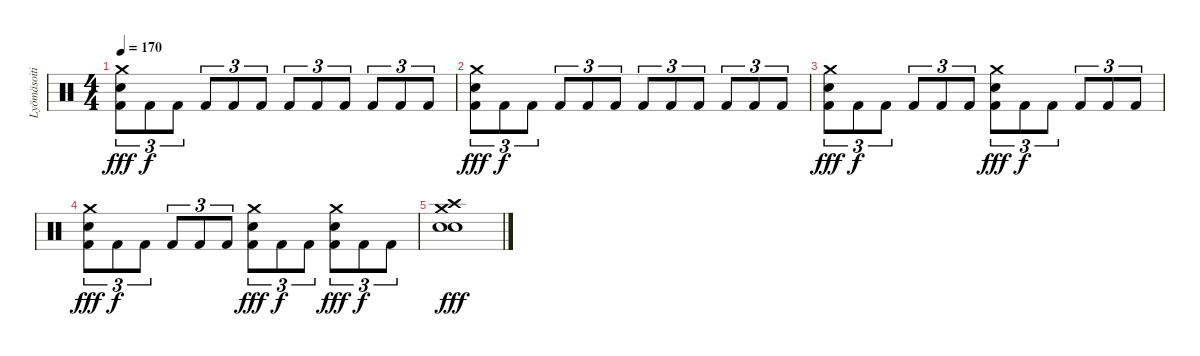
\track ("Lyömäsoitin" "Lyömäsoiti") {instrument percussion}
\staff {score}
\articulation defaults
\ts (4 4)
\tempo 170
\clef neutral
\ks c
("Crash medium (hit)" "Snare (hit) 2" "Kick (hit) 2").8{tu (3 2) dy fff} "Kick (hit) 2".8{tu (3 2) dy f} "Kick (hit) 2".8{tu (3 2)} "Kick (hit) 2".8{tu (3 2)} "Kick (hit) 2".8{tu (3 2)} "Kick (hit) 2".8{tu (3 2)} "Kick (hit) 2".8{tu (3 2)} "Kick (hit) 2".8{tu (3 2)} "Kick (hit) 2".8{tu (3 2)} "Kick (hit) 2".8{tu (3 2)} "Kick (hit) 2".8{tu (3 2)} "Kick (hit) 2".8{tu (3 2)} |
("Crash medium (hit)" "Snare (hit) 2" "Kick (hit) 2").8{tu (3 2) dy fff} "Kick (hit) 2".8{tu (3 2) dy f} "Kick (hit) 2".8{tu (3 2)} "Kick (hit) 2".8{tu (3 2)} "Kick (hit) 2".8{tu (3 2)} "Kick (hit) 2".8{tu (3 2)} "Kick (hit) 2".8{tu (3 2)} "Kick (hit) 2".8{tu (3 2)} "Kick (hit) 2".8{tu (3 2)} "Kick (hit) 2".8{tu (3 2)} "Kick (hit) 2".8{tu (3 2)} "Kick (hit) 2".8{tu (3 2)} |
("Crash medium (hit)" "Snare (hit) 2" "Kick (hit) 2").8{tu (3 2) dy fff} "Kick (hit) 2".8{tu (3 2) dy f} "Kick (hit) 2".8{tu (3 2)} "Kick (hit) 2".8{tu (3 2)} "Kick (hit) 2".8{tu (3 2)} "Kick (hit) 2".8{tu (3 2)} ("Crash medium (hit)" "Snare (hit) 2" "Kick (hit) 2").8{tu (3 2) dy fff} "Kick (hit) 2".8{tu (3 2) dy f} "Kick (hit) 2".8{tu (3 2)} "Kick (hit) 2".8{tu (3 2)} "Kick (hit) 2".8{tu (3 2)} "Kick (hit) 2".8{tu (3 2)} |
("Crash medium (hit)" "Snare (hit) 2" "Kick (hit) 2").8{tu (3 2) dy fff} "Kick (hit) 2".8{tu (3 2) dy f} "Kick (hit) 2".8{tu (3 2)} "Kick (hit) 2".8{tu (3 2)} "Kick (hit) 2".8{tu (3 2)} "Kick (hit) 2".8{tu (3 2)} ("Crash medium (hit)" "Snare (hit) 2" "Kick (hit) 2").8{tu (3 2) dy fff} "Kick (hit) 2".8{tu (3 2) dy f} "Kick (hit) 2".8{tu (3 2)} ("Crash medium (hit)" "Snare (hit) 2" "Kick (hit) 2").8{tu (3 2) dy fff} "Kick (hit) 2".8{tu (3 2) dy f} "Kick (hit) 2".8{tu (3 2)} |
("Crash medium (hit)" "Crash high (hit)" "Snare (hit) 2" "Electric Snare (hit)").1{dy fff}
